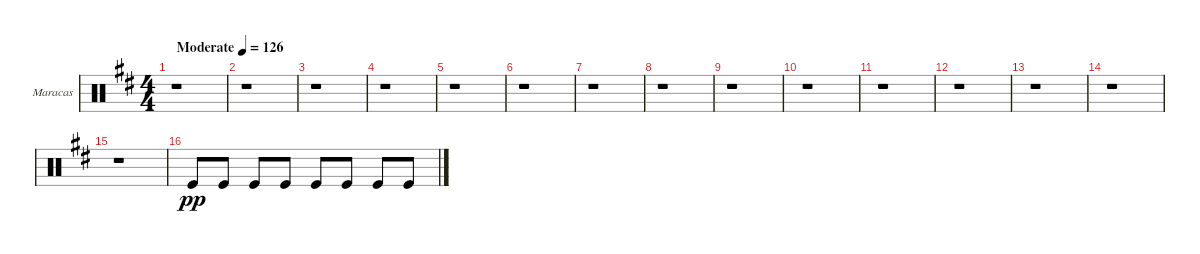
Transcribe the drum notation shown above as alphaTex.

\bracketExtendMode groupsimilarinstruments
\firstSystemTrackNameOrientation horizontal
\otherSystemsTrackNameOrientation horizontal
\track ("Maracas" "Maracas") {instrument percussion}
\staff {score}
\articulation defaults
\ts (4 4)
\beaming (8 2 2 2 2)
\tempo (126 "Moderate")
\clef neutral
\ks d
r.1{dy pp} |
r.1 |
\scale
0.302929 r.1 |
\scale
0.248377 r.1 |
\scale
0.448266 r.1 |
\scale
0.488537 r.1 |
\scale
0.511306 r.1 |
\scale
0.544391 r.1 |
\scale
0.457793 r.1 |
r.1 |
\scale
0.60236 r.1 |
\scale
0.397695 r.1 |
r.1 |
r.1 |
\scale
0.395765 r.1 |
\scale
0.615426 "Kick (hit)".8 "Kick (hit)".8 "Kick (hit)".8 "Kick (hit)".8 "Kick (hit)".8 "Kick (hit)".8 "Kick (hit)".8 "Kick (hit)".8
